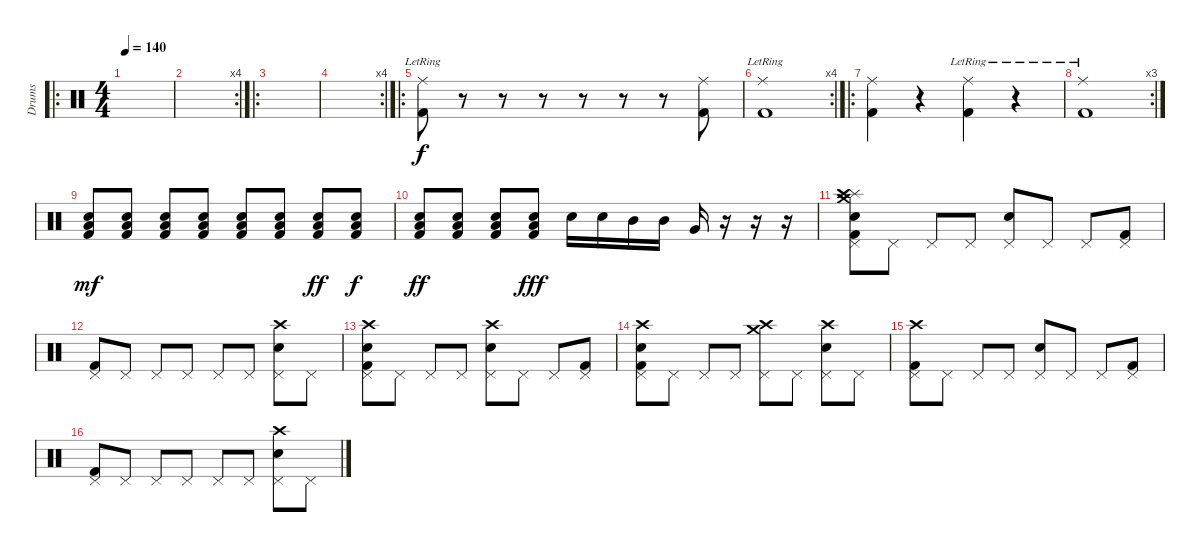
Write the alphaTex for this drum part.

\track ("Drums" "Drums") {instrument percussion}
\staff {score}
\articulation defaults
\ro
\ts (4 4)
\tempo 140
\clef neutral
\ks c
|
\rc 4
|
\ro
|
\rc 4
|
\ro
("Ride (middle)"{lr} "Kick (hit) 2").8 r.8 r.8 r.8 r.8 r.8 r.8 ("Ride (middle)" "Kick (hit) 2").8 |
\rc 4
("Ride (middle)"{lr} "Kick (hit) 2").1 |
\ro
("Ride (middle)" "Kick (hit) 2").4 r.4 ("Ride (middle)" "Kick (hit) 2"{lr}).4 r.4 |
\rc 3
("Ride (middle)"{lr} "Kick (hit) 2").1 |
("Low Floor Tom (hit)" "Snare (hit) 2" "Kick (hit) 2").8{dy mf volume 14} ("Low Floor Tom (hit)" "Snare (hit) 2" "Kick (hit) 2").8 ("Low Floor Tom (hit)" "Snare (hit) 2" "Kick (hit) 2").8 ("Low Floor Tom (hit)" "Snare (hit) 2" "Kick (hit) 2").8 ("Low Floor Tom (hit)" "Snare (hit) 2" "Kick (hit) 2").8 ("Low Floor Tom (hit)" "Snare (hit) 2" "Kick (hit) 2").8 ("Low Floor Tom (hit)" "Snare (hit) 2" "Kick (hit) 2").8{dy ff} ("Low Floor Tom (hit)" "Snare (hit) 2" "Kick (hit) 2").8{dy f} |
("Low Floor Tom (hit)" "Snare (hit) 2" "Kick (hit) 2").8{dy ff} ("Low Floor Tom (hit)" "Snare (hit) 2" "Kick (hit) 2").8 ("Low Floor Tom (hit)" "Snare (hit) 2" "Kick (hit) 2").8 ("Low Floor Tom (hit)" "Snare (hit) 2" "Kick (hit) 2").8{dy fff} "Snare (hit) 2".16 "Snare (hit) 2".16 "Mid Tom (hit)".16 "Mid Tom (hit)".16 "Very Low Tom (hit)".16 r.16 r.16 r.16 |
("Crash medium (hit)" "Splash (hit)" "Pedal Hi-Hat (hit)" "Crash high (hit)" "Snare (hit) 2" "Kick (hit) 2").8 "Pedal Hi-Hat (hit)".8 "Pedal Hi-Hat (hit)".8 "Pedal Hi-Hat (hit)".8 ("Pedal Hi-Hat (hit)" "Snare (hit) 2").8 "Pedal Hi-Hat (hit)".8 "Pedal Hi-Hat (hit)".8 ("Pedal Hi-Hat (hit)" "Kick (hit) 2").8 |
("Pedal Hi-Hat (hit)" "Kick (hit) 2").8 "Pedal Hi-Hat (hit)".8 "Pedal Hi-Hat (hit)".8 "Pedal Hi-Hat (hit)".8 "Pedal Hi-Hat (hit)".8 "Pedal Hi-Hat (hit)".8 ("Crash high (hit)" "Pedal Hi-Hat (hit)" "Snare (hit) 2").8 "Pedal Hi-Hat (hit)".8 |
("Crash high (hit)" "Pedal Hi-Hat (hit)" "Snare (hit) 2" "Kick (hit) 2").8 "Pedal Hi-Hat (hit)".8 "Pedal Hi-Hat (hit)".8 "Pedal Hi-Hat (hit)".8 ("Crash high (hit)" "Pedal Hi-Hat (hit)" "Snare (hit) 2").8 "Pedal Hi-Hat (hit)".8 "Pedal Hi-Hat (hit)".8 ("Pedal Hi-Hat (hit)" "Kick (hit) 2").8 |
("Crash high (hit)" "Pedal Hi-Hat (hit)" "Snare (hit) 2" "Kick (hit) 2").8 "Pedal Hi-Hat (hit)".8 "Pedal Hi-Hat (hit)".8 "Pedal Hi-Hat (hit)".8 ("Crash medium (hit)" "Crash high (hit)" "Pedal Hi-Hat (hit)").8 "Pedal Hi-Hat (hit)".8 ("Crash high (hit)" "Pedal Hi-Hat (hit)" "Snare (hit) 2").8 "Pedal Hi-Hat (hit)".8 |
("Crash high (hit)" "Pedal Hi-Hat (hit)" "Kick (hit) 2").8 "Pedal Hi-Hat (hit)".8 "Pedal Hi-Hat (hit)".8 "Pedal Hi-Hat (hit)".8 ("Pedal Hi-Hat (hit)" "Snare (hit) 2").8 "Pedal Hi-Hat (hit)".8 "Pedal Hi-Hat (hit)".8 ("Pedal Hi-Hat (hit)" "Kick (hit) 2").8 |
("Pedal Hi-Hat (hit)" "Kick (hit) 2").8 "Pedal Hi-Hat (hit)".8 "Pedal Hi-Hat (hit)".8 "Pedal Hi-Hat (hit)".8 "Pedal Hi-Hat (hit)".8 "Pedal Hi-Hat (hit)".8 ("Crash high (hit)" "Pedal Hi-Hat (hit)" "Snare (hit) 2").8 "Pedal Hi-Hat (hit)".8
